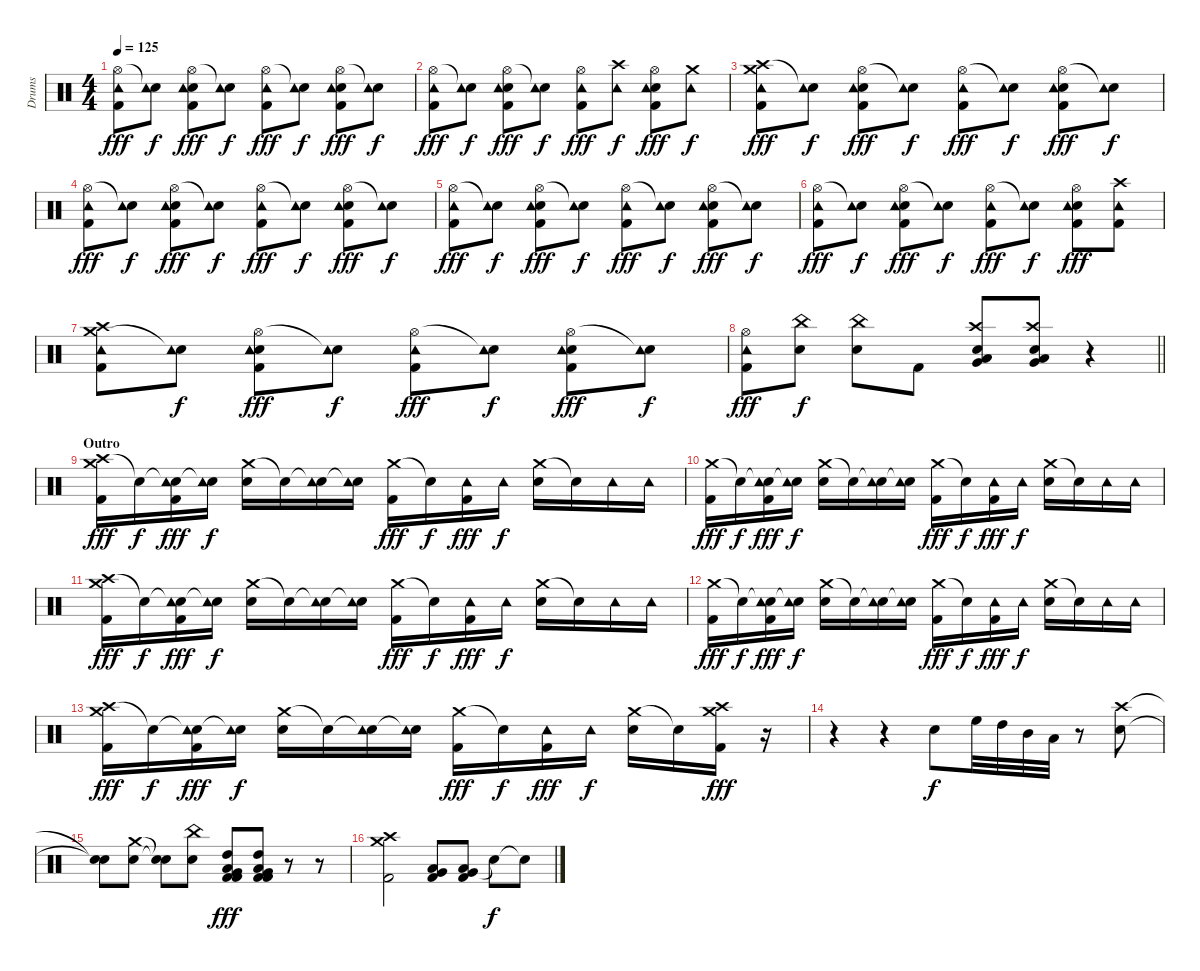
\track ("Drums" "Drums") {instrument percussion}
\staff {score}
\articulation defaults
\ts (4 4)
\tempo 125
\clef neutral
\ks c
("Hi-Hat (open)" "Kick (hit) 2" "Tambourine (hit)").8{dy fff} ("Snare (hit)"{t} "Tambourine (hit)").8{dy f} ("Hi-Hat (open)" "Kick (hit) 2" "Electric Snare (hit)" "Tambourine (hit)").8{dy fff} ("Snare (hit)"{t} "Tambourine (hit)").8{dy f} ("Hi-Hat (open)" "Kick (hit) 2" "Tambourine (hit)").8{dy fff} ("Snare (hit)"{t} "Tambourine (hit)").8{dy f} ("Hi-Hat (open)" "Kick (hit) 2" "Electric Snare (hit)" "Tambourine (hit)").8{dy fff} ("Snare (hit)"{t} "Tambourine (hit)").8{dy f} |
("Hi-Hat (open)" "Kick (hit) 2" "Tambourine (hit)").8{dy fff} ("Snare (hit)"{t} "Tambourine (hit)").8{dy f} ("Hi-Hat (open)" "Kick (hit) 2" "Electric Snare (hit)" "Tambourine (hit)").8{dy fff} ("Snare (hit)"{t} "Tambourine (hit)").8{dy f} ("Hi-Hat (open)" "Kick (hit) 2" "Tambourine (hit)").8{dy fff} ("Crash high (hit)" "Tambourine (hit)").8{dy f} ("Hi-Hat (open)" "Kick (hit) 2" "Electric Snare (hit)" "Tambourine (hit)").8{dy fff} ("Crash medium (hit)" "Tambourine (hit)").8{dy f} |
("Crash high (hit)" "Kick (hit) 2" "Crash medium (hit)" "Tambourine (hit)").8{dy fff} ("Snare (hit)"{t} "Tambourine (hit)").8{dy f} ("Hi-Hat (open)" "Kick (hit) 2" "Electric Snare (hit)" "Tambourine (hit)").8{dy fff} ("Snare (hit)"{t} "Tambourine (hit)").8{dy f} ("Hi-Hat (open)" "Kick (hit) 2" "Tambourine (hit)").8{dy fff} ("Snare (hit)"{t} "Tambourine (hit)").8{dy f} ("Hi-Hat (open)" "Kick (hit) 2" "Electric Snare (hit)" "Tambourine (hit)").8{dy fff} ("Snare (hit)"{t} "Tambourine (hit)").8{dy f} |
("Hi-Hat (open)" "Kick (hit) 2" "Tambourine (hit)").8{dy fff} ("Snare (hit)"{t} "Tambourine (hit)").8{dy f} ("Hi-Hat (open)" "Kick (hit) 2" "Electric Snare (hit)" "Tambourine (hit)").8{dy fff} ("Snare (hit)"{t} "Tambourine (hit)").8{dy f} ("Hi-Hat (open)" "Kick (hit) 2" "Tambourine (hit)").8{dy fff} ("Snare (hit)"{t} "Tambourine (hit)").8{dy f} ("Hi-Hat (open)" "Kick (hit) 2" "Electric Snare (hit)" "Tambourine (hit)").8{dy fff} ("Snare (hit)"{t} "Tambourine (hit)").8{dy f} |
("Hi-Hat (open)" "Kick (hit) 2" "Tambourine (hit)").8{dy fff} ("Snare (hit)"{t} "Tambourine (hit)").8{dy f} ("Hi-Hat (open)" "Kick (hit) 2" "Electric Snare (hit)" "Tambourine (hit)").8{dy fff} ("Snare (hit)"{t} "Tambourine (hit)").8{dy f} ("Hi-Hat (open)" "Kick (hit) 2" "Tambourine (hit)").8{dy fff} ("Snare (hit)"{t} "Tambourine (hit)").8{dy f} ("Hi-Hat (open)" "Kick (hit) 2" "Electric Snare (hit)" "Tambourine (hit)").8{dy fff} ("Snare (hit)"{t} "Tambourine (hit)").8{dy f} |
("Hi-Hat (open)" "Kick (hit) 2" "Tambourine (hit)").8{dy fff} ("Snare (hit)"{t} "Tambourine (hit)").8{dy f} ("Hi-Hat (open)" "Kick (hit) 2" "Electric Snare (hit)" "Tambourine (hit)").8{dy fff} ("Snare (hit)"{t} "Tambourine (hit)").8{dy f} ("Hi-Hat (open)" "Kick (hit) 2" "Tambourine (hit)").8{dy fff} ("Snare (hit)"{t} "Tambourine (hit)").8{dy f} ("Hi-Hat (open)" "Kick (hit) 2" "Electric Snare (hit)" "Tambourine (hit)").8{dy fff} ("Crash high (hit)" "Kick (hit) 2" "Tambourine (hit)").8 |
("Crash medium (hit)" "Kick (hit) 2" "Crash high (hit)" "Tambourine (hit)").8 ("Snare (hit)"{t} "Tambourine (hit)").8{dy f} ("Hi-Hat (open)" "Kick (hit) 2" "Electric Snare (hit)" "Tambourine (hit)").8{dy fff} ("Snare (hit)"{t} "Tambourine (hit)").8{dy f} ("Hi-Hat (open)" "Kick (hit) 2" "Tambourine (hit)").8{dy fff} ("Snare (hit)"{t} "Tambourine (hit)").8{dy f} ("Hi-Hat (open)" "Kick (hit) 2" "Electric Snare (hit)" "Tambourine (hit)").8{dy fff} ("Snare (hit)"{t} "Tambourine (hit)").8{dy f} |
\barLineRight lightlight
("Hi-Hat (open)" "Kick (hit) 2" "Tambourine (hit)").8{dy fff} ("Electric Snare (hit)" "China (hit)").8{dy f} ("Electric Snare (hit)" "China (hit)").8 "Kick (hit) 2".8 ("Electric Snare (hit)" "Low Tom (hit)" "Very Low Tom (hit)" "Crash high (hit)").8 ("Electric Snare (hit)" "Low Tom (hit)" "Very Low Tom (hit)" "Crash high (hit)").8 r.4 |
\section ("" "Outro")
("Crash high (hit)" "Kick (hit) 2" "Crash medium (hit)").16{dy fff} "Snare (hit)"{t}.16{dy f} ("Snare (hit)"{t} "Tambourine (hit)" "Kick (hit) 2").16{dy fff} ("Snare (hit)"{t} "Tambourine (hit)").16{dy f} ("Crash medium (hit)" "Electric Snare (hit)").16 "Snare (hit)"{t}.16 ("Snare (hit)"{t} "Tambourine (hit)").16 ("Snare (hit)"{t} "Tambourine (hit)").16 ("Crash medium (hit)" "Kick (hit) 2").16{dy fff} "Snare (hit)"{t}.16{dy f} ("Tambourine (hit)" "Kick (hit) 2").16{dy fff} "Tambourine (hit)".16{dy f} ("Crash medium (hit)" "Electric Snare (hit)").16 "Snare (hit)"{t}.16 "Tambourine (hit)".16 "Tambourine (hit)".16 |
("Crash medium (hit)" "Kick (hit) 2").16{dy fff} "Snare (hit)"{t}.16{dy f} ("Snare (hit)"{t} "Tambourine (hit)" "Kick (hit) 2").16{dy fff} ("Snare (hit)"{t} "Tambourine (hit)").16{dy f} ("Crash medium (hit)" "Electric Snare (hit)").16 "Snare (hit)"{t}.16 ("Snare (hit)"{t} "Tambourine (hit)").16 ("Snare (hit)"{t} "Tambourine (hit)").16 ("Crash medium (hit)" "Kick (hit) 2").16{dy fff} "Snare (hit)"{t}.16{dy f} ("Tambourine (hit)" "Kick (hit) 2").16{dy fff} "Tambourine (hit)".16{dy f} ("Crash medium (hit)" "Electric Snare (hit)").16 "Snare (hit)"{t}.16 "Tambourine (hit)".16 "Tambourine (hit)".16 |
("Crash high (hit)" "Kick (hit) 2" "Crash medium (hit)").16{dy fff} "Snare (hit)"{t}.16{dy f} ("Snare (hit)"{t} "Tambourine (hit)" "Kick (hit) 2").16{dy fff} ("Snare (hit)"{t} "Tambourine (hit)").16{dy f} ("Crash medium (hit)" "Electric Snare (hit)").16 "Snare (hit)"{t}.16 ("Snare (hit)"{t} "Tambourine (hit)").16 ("Snare (hit)"{t} "Tambourine (hit)").16 ("Crash medium (hit)" "Kick (hit) 2").16{dy fff} "Snare (hit)"{t}.16{dy f} ("Tambourine (hit)" "Kick (hit) 2").16{dy fff} "Tambourine (hit)".16{dy f} ("Crash medium (hit)" "Electric Snare (hit)").16 "Snare (hit)"{t}.16 "Tambourine (hit)".16 "Tambourine (hit)".16 |
("Crash medium (hit)" "Kick (hit) 2").16{dy fff} "Snare (hit)"{t}.16{dy f} ("Snare (hit)"{t} "Tambourine (hit)" "Kick (hit) 2").16{dy fff} ("Snare (hit)"{t} "Tambourine (hit)").16{dy f} ("Crash medium (hit)" "Electric Snare (hit)").16 "Snare (hit)"{t}.16 ("Snare (hit)"{t} "Tambourine (hit)").16 ("Snare (hit)"{t} "Tambourine (hit)").16 ("Crash medium (hit)" "Kick (hit) 2").16{dy fff} "Snare (hit)"{t}.16{dy f} ("Tambourine (hit)" "Kick (hit) 2").16{dy fff} "Tambourine (hit)".16{dy f} ("Crash medium (hit)" "Electric Snare (hit)").16 "Snare (hit)"{t}.16 "Tambourine (hit)".16 "Tambourine (hit)".16 |
("Crash high (hit)" "Kick (hit) 2" "Crash medium (hit)").16{dy fff} "Snare (hit)"{t}.16{dy f} ("Snare (hit)"{t} "Tambourine (hit)" "Kick (hit) 2").16{dy fff} ("Snare (hit)"{t} "Tambourine (hit)").16{dy f} ("Crash medium (hit)" "Electric Snare (hit)").16 "Snare (hit)"{t}.16 ("Snare (hit)"{t} "Tambourine (hit)").16 ("Snare (hit)"{t} "Tambourine (hit)").16 ("Crash medium (hit)" "Kick (hit) 2").16{dy fff} "Snare (hit)"{t}.16{dy f} ("Tambourine (hit)" "Kick (hit) 2").16{dy fff} "Tambourine (hit)".16{dy f} ("Crash medium (hit)" "Electric Snare (hit)").16 "Snare (hit)"{t}.16 ("Crash medium (hit)" "Kick (hit) 2" "Crash high (hit)").16{dy fff} r.16 |
r.4 r.4 "Electric Snare (hit)".8{dy f} "High Floor Tom (hit)".32 "High Tom (hit)".32 "Mid Tom (hit)".32 "Low Tom (hit)".32 r.8 ("Electric Snare (hit)" "Crash high (hit)").8 |
("Snare (hit)"{t} "Snare (hit)"{t}).8 ("Electric Snare (hit)" "Crash medium (hit)").8 ("Snare (hit)"{t} "Snare (hit)"{t}).8 ("Electric Snare (hit)" "China (hit)").8 ("Low Tom (hit)" "Kick (hit) 2" "Kick (hit) 2" "Very Low Tom (hit)" "High Tom (hit)").8{dy fff} ("Low Tom (hit)" "Kick (hit) 2" "Kick (hit) 2" "Very Low Tom (hit)" "High Tom (hit)").8 r.8 r.8 |
("Crash high (hit)" "Kick (hit) 2" "Crash medium (hit)").2 ("Very Low Tom (hit)" "Low Tom (hit)" "Kick (hit) 2").8 ("Very Low Tom (hit)" "Low Tom (hit)" "Kick (hit) 2").8 "Snare (hit)"{t}.8{dy f} "Snare (hit)"{t}.8
